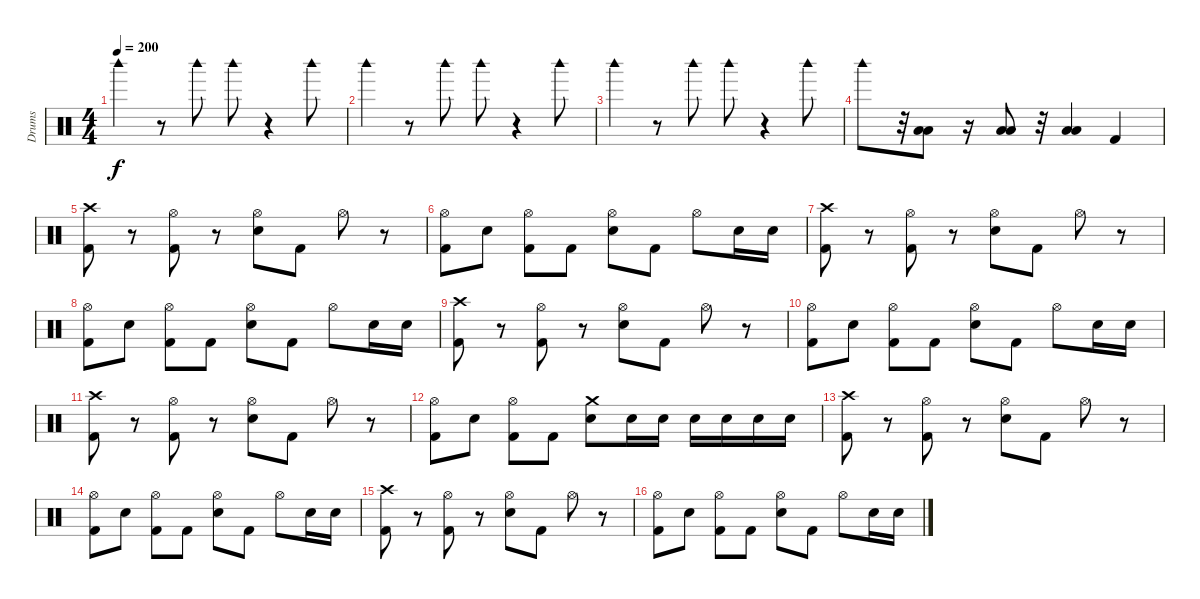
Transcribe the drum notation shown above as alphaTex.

\track ("Drums" "Drums") {instrument percussion}
\staff {score}
\articulation defaults
\ts (4 4)
\tempo 200
\clef neutral
\ks c "Woodblock high (hit)".4{dy f}
r.8 "Woodblock high (hit)".8 "Woodblock high (hit)".8 r.4 "Woodblock high (hit)".8 |
"Woodblock high (hit)".4 r.8 "Woodblock high (hit)".8 "Woodblock high (hit)".8 r.4 "Woodblock high (hit)".8 |
"Woodblock high (hit)".4 r.8 "Woodblock high (hit)".8 "Woodblock high (hit)".8 r.4 "Woodblock high (hit)".8 |
"Woodblock high (hit)".8 r.32 ("Low Floor Tom (hit)" "Low Tom (hit)").8 r.16 ("Low Floor Tom (hit)" "Low Tom (hit)").8 r.32 ("Low Floor Tom (hit)" "Low Tom (hit)").4 "Kick (hit) 2".4 |
("Crash high (hit)" "Kick (hit) 2").8 r.8 ("Hi-Hat (open)" "Kick (hit) 2").8 r.8 ("Hi-Hat (open)" "Electric Snare (hit)").8 "Kick (hit) 2".8 "Hi-Hat (open)".8 r.8 |
("Hi-Hat (open)" "Kick (hit) 2").8 "Electric Snare (hit)".8 ("Hi-Hat (open)" "Kick (hit) 2").8 "Kick (hit) 2".8 ("Hi-Hat (open)" "Electric Snare (hit)").8 "Kick (hit) 2".8 "Hi-Hat (open)".8 "Electric Snare (hit)".16 "Electric Snare (hit)".16 |
("Crash high (hit)" "Kick (hit) 2").8 r.8 ("Hi-Hat (open)" "Kick (hit) 2").8 r.8 ("Hi-Hat (open)" "Electric Snare (hit)").8 "Kick (hit) 2".8 "Hi-Hat (open)".8 r.8 |
("Hi-Hat (open)" "Kick (hit) 2").8 "Electric Snare (hit)".8 ("Hi-Hat (open)" "Kick (hit) 2").8 "Kick (hit) 2".8 ("Hi-Hat (open)" "Electric Snare (hit)").8 "Kick (hit) 2".8 "Hi-Hat (open)".8 "Electric Snare (hit)".16 "Electric Snare (hit)".16 |
("Crash high (hit)" "Kick (hit) 2").8 r.8 ("Hi-Hat (open)" "Kick (hit) 2").8 r.8 ("Hi-Hat (open)" "Electric Snare (hit)").8 "Kick (hit) 2".8 "Hi-Hat (open)".8 r.8 |
("Hi-Hat (open)" "Kick (hit) 2").8 "Electric Snare (hit)".8 ("Hi-Hat (open)" "Kick (hit) 2").8 "Kick (hit) 2".8 ("Hi-Hat (open)" "Electric Snare (hit)").8 "Kick (hit) 2".8 "Hi-Hat (open)".8 "Electric Snare (hit)".16 "Electric Snare (hit)".16 |
("Crash high (hit)" "Kick (hit) 2").8 r.8 ("Hi-Hat (open)" "Kick (hit) 2").8 r.8 ("Hi-Hat (open)" "Electric Snare (hit)").8 "Kick (hit) 2".8 "Hi-Hat (open)".8 r.8 |
("Hi-Hat (open)" "Kick (hit) 2").8 "Electric Snare (hit)".8 ("Hi-Hat (open)" "Kick (hit) 2").8 "Kick (hit) 2".8 ("Crash medium (hit)" "Electric Snare (hit)").8 "Electric Snare (hit)".16 "Electric Snare (hit)".16 "Electric Snare (hit)".16 "Electric Snare (hit)".16 "Electric Snare (hit)".16 "Electric Snare (hit)".16 |
("Crash high (hit)" "Kick (hit) 2").8 r.8 ("Hi-Hat (open)" "Kick (hit) 2").8 r.8 ("Hi-Hat (open)" "Electric Snare (hit)").8 "Kick (hit) 2".8 "Hi-Hat (open)".8 r.8 |
("Hi-Hat (open)" "Kick (hit) 2").8 "Electric Snare (hit)".8 ("Hi-Hat (open)" "Kick (hit) 2").8 "Kick (hit) 2".8 ("Hi-Hat (open)" "Electric Snare (hit)").8 "Kick (hit) 2".8 "Hi-Hat (open)".8 "Electric Snare (hit)".16 "Electric Snare (hit)".16 |
("Crash high (hit)" "Kick (hit) 2").8 r.8 ("Hi-Hat (open)" "Kick (hit) 2").8 r.8 ("Hi-Hat (open)" "Electric Snare (hit)").8 "Kick (hit) 2".8 "Hi-Hat (open)".8 r.8 |
("Hi-Hat (open)" "Kick (hit) 2").8 "Electric Snare (hit)".8 ("Hi-Hat (open)" "Kick (hit) 2").8 "Kick (hit) 2".8 ("Hi-Hat (open)" "Electric Snare (hit)").8 "Kick (hit) 2".8 "Hi-Hat (open)".8 "Electric Snare (hit)".16 "Electric Snare (hit)".16
